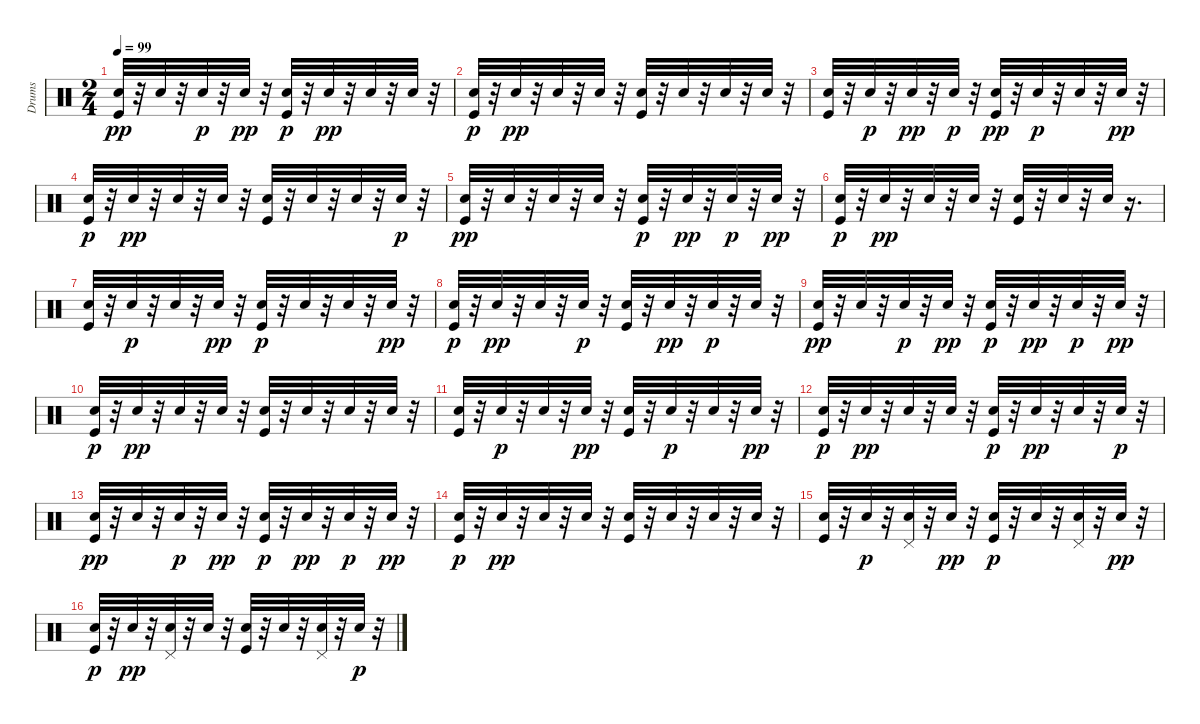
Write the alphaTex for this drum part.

\track ("Drums" "Drums") {instrument percussion}
\staff {score}
\articulation defaults
\ts (2 4)
\tempo 99
\clef neutral
\ks c
("Kick (hit)" "Hand Clap (hit)").32{dy pp} r.32 "Snare (hit) 2".32 r.32 "Snare (hit) 2".32{dy p} r.32 "Hand Clap (hit)".32{dy pp} r.32 ("Hand Clap (hit)" "Kick (hit)").32{dy p} r.32 "Snare (hit) 2".32{dy pp} r.32 "Hand Clap (hit)".32 r.32 "Snare (hit) 2".32 r.32 |
("Hand Clap (hit)" "Kick (hit)").32{dy p} r.32 "Snare (hit) 2".32{dy pp} r.32 "Snare (hit) 2".32 r.32 "Snare (hit) 2".32 r.32 ("Kick (hit)" "Hand Clap (hit)").32 r.32 "Snare (hit) 2".32 r.32 "Hand Clap (hit)".32 r.32 "Snare (hit) 2".32 r.32 |
("Kick (hit)" "Hand Clap (hit)").32 r.32 "Snare (hit) 2".32{dy p} r.32 "Snare (hit) 2".32{dy pp} r.32 "Hand Clap (hit)".32{dy p} r.32 ("Kick (hit)" "Snare (hit) 2").32{dy pp} r.32 "Snare (hit) 2".32{dy p} r.32 "Snare (hit) 2".32 r.32 "Snare (hit) 2".32{dy pp} r.32 |
("Hand Clap (hit)" "Kick (hit)").32{dy p} r.32 "Snare (hit) 2".32{dy pp} r.32 "Snare (hit) 2".32 r.32 "Hand Clap (hit)".32 r.32 ("Kick (hit)" "Hand Clap (hit)").32 r.32 "Snare (hit) 2".32 r.32 "Hand Clap (hit)".32 r.32 "Snare (hit) 2".32{dy p} r.32 |
("Kick (hit)" "Hand Clap (hit)").32{dy pp} r.32 "Snare (hit) 2".32 r.32 "Snare (hit) 2".32 r.32 "Hand Clap (hit)".32 r.32 ("Kick (hit)" "Snare (hit) 2").32{dy p} r.32 "Snare (hit) 2".32{dy pp} r.32 "Snare (hit) 2".32{dy p} r.32 "Snare (hit) 2".32{dy pp} r.32 |
("Hand Clap (hit)" "Kick (hit)").32{dy p} r.32 "Snare (hit) 2".32{dy pp} r.32 "Snare (hit) 2".32 r.32 "Hand Clap (hit)".32 r.32 ("Kick (hit)" "Hand Clap (hit)").32 r.32 "Snare (hit) 2".32 r.32 "Hand Clap (hit)".32 r.16{d} |
("Kick (hit)" "Hand Clap (hit)").32 r.32 "Snare (hit) 2".32{dy p} r.32 "Snare (hit) 2".32 r.32 "Snare (hit) 2".32{dy pp} r.32 ("Hand Clap (hit)" "Kick (hit)").32{dy p} r.32 "Snare (hit) 2".32 r.32 "Snare (hit) 2".32 r.32 "Hand Clap (hit)".32{dy pp} r.32 |
("Hand Clap (hit)" "Kick (hit)").32{dy p} r.32 "Snare (hit) 2".32{dy pp} r.32 "Snare (hit) 2".32 r.32 "Snare (hit) 2".32{dy p} r.32 ("Hand Clap (hit)" "Kick (hit)").32 r.32 "Hand Clap (hit)".32{dy pp} r.32 "Snare (hit) 2".32{dy p} r.32 "Snare (hit) 2".32 r.32 |
("Kick (hit)" "Hand Clap (hit)").32{dy pp} r.32 "Snare (hit) 2".32 r.32 "Snare (hit) 2".32{dy p} r.32 "Snare (hit) 2".32{dy pp} r.32 ("Hand Clap (hit)" "Kick (hit)").32{dy p} r.32 "Snare (hit) 2".32{dy pp} r.32 "Snare (hit) 2".32{dy p} r.32 "Snare (hit) 2".32{dy pp} r.32 |
("Hand Clap (hit)" "Kick (hit)").32{dy p} r.32 "Snare (hit) 2".32{dy pp} r.32 "Snare (hit) 2".32 r.32 "Hand Clap (hit)".32 r.32 ("Kick (hit)" "Hand Clap (hit)").32 r.32 "Snare (hit) 2".32 r.32 "Hand Clap (hit)".32 r.32 "Hand Clap (hit)".32 r.32 |
("Kick (hit)" "Hand Clap (hit)").32 r.32 "Snare (hit) 2".32{dy p} r.32 "Snare (hit) 2".32 r.32 "Hand Clap (hit)".32{dy pp} r.32 ("Kick (hit)" "Snare (hit) 2").32 r.32 "Snare (hit) 2".32{dy p} r.32 "Snare (hit) 2".32 r.32 "Hand Clap (hit)".32{dy pp} r.32 |
("Hand Clap (hit)" "Kick (hit)").32{dy p} r.32 "Snare (hit) 2".32{dy pp} r.32 "Snare (hit) 2".32 r.32 "Hand Clap (hit)".32 r.32 ("Hand Clap (hit)" "Kick (hit)").32{dy p} r.32 "Snare (hit) 2".32{dy pp} r.32 "Hand Clap (hit)".32 r.32 "Snare (hit) 2".32{dy p} r.32 |
("Kick (hit)" "Hand Clap (hit)").32{dy pp} r.32 "Snare (hit) 2".32 r.32 "Snare (hit) 2".32{dy p} r.32 "Snare (hit) 2".32{dy pp} r.32 ("Hand Clap (hit)" "Kick (hit)").32{dy p} r.32 "Snare (hit) 2".32{dy pp} r.32 "Snare (hit) 2".32{dy p} r.32 "Snare (hit) 2".32{dy pp} r.32 |
("Hand Clap (hit)" "Kick (hit)").32{dy p} r.32 "Snare (hit) 2".32{dy pp} r.32 "Snare (hit) 2".32 r.32 "Hand Clap (hit)".32 r.32 ("Kick (hit)" "Hand Clap (hit)").32 r.32 "Snare (hit) 2".32 r.32 "Hand Clap (hit)".32 r.32 "Snare (hit) 2".32 r.32 |
("Kick (hit)" "Hand Clap (hit)").32 r.32 "Snare (hit) 2".32{dy p} r.32 ("Pedal Hi-Hat (hit)" "Snare (hit) 2").32 r.32 "Snare (hit) 2".32{dy pp} r.32 ("Hand Clap (hit)" "Kick (hit)").32{dy p} r.32 "Snare (hit) 2".32 r.32 ("Pedal Hi-Hat (hit)" "Snare (hit) 2").32 r.32 "Snare (hit) 2".32{dy pp} r.32 |
("Hand Clap (hit)" "Kick (hit)").32{dy p} r.32 "Snare (hit) 2".32{dy pp} r.32 ("Pedal Hi-Hat (hit)" "Snare (hit) 2").32 r.32 "Hand Clap (hit)".32 r.32 ("Kick (hit)" "Hand Clap (hit)").32 r.32 "Snare (hit) 2".32 r.32 ("Pedal Hi-Hat (hit)" "Hand Clap (hit)").32 r.32 "Snare (hit) 2".32{dy p} r.32
